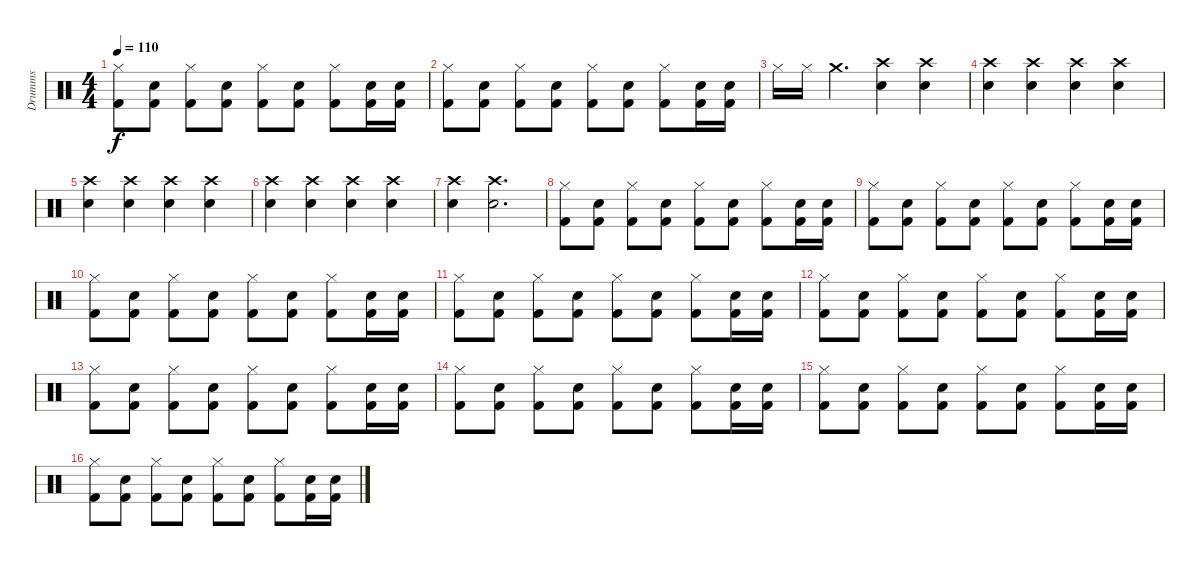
\track ("Drumms" "Drumms") {instrument percussion}
\staff {score}
\articulation defaults
\ts (4 4)
\tempo 110
\clef neutral
\ks c
("Kick (hit) 2" "Hi-Hat (closed)").8{dy f} ("Kick (hit) 2" "Snare (hit) 2").8 ("Kick (hit) 2" "Hi-Hat (closed)").8 ("Kick (hit) 2" "Snare (hit) 2").8 ("Kick (hit) 2" "Hi-Hat (closed)").8 ("Kick (hit) 2" "Snare (hit) 2").8 ("Kick (hit) 2" "Hi-Hat (closed)").8 ("Kick (hit) 2" "Snare (hit) 2").16 ("Kick (hit) 2" "Snare (hit) 2").16 |
("Kick (hit) 2" "Hi-Hat (closed)").8 ("Kick (hit) 2" "Snare (hit) 2").8 ("Kick (hit) 2" "Hi-Hat (closed)").8 ("Kick (hit) 2" "Snare (hit) 2").8 ("Kick (hit) 2" "Hi-Hat (closed)").8 ("Kick (hit) 2" "Snare (hit) 2").8 ("Kick (hit) 2" "Hi-Hat (closed)").8 ("Kick (hit) 2" "Snare (hit) 2").16 ("Kick (hit) 2" "Snare (hit) 2").16 |
"Hi-Hat (closed)".16 "Hi-Hat (closed)".16 "Crash medium (hit)".4{d} ("Snare (hit) 2" "Crash high (hit)").4 ("Snare (hit) 2" "Crash high (hit)").4 |
("Snare (hit) 2" "Crash high (hit)").4 ("Snare (hit) 2" "Crash high (hit)").4 ("Snare (hit) 2" "Crash high (hit)").4 ("Snare (hit) 2" "Crash high (hit)").4 |
("Snare (hit) 2" "Crash high (hit)").4 ("Snare (hit) 2" "Crash high (hit)").4 ("Snare (hit) 2" "Crash high (hit)").4 ("Snare (hit) 2" "Crash high (hit)").4 |
("Snare (hit) 2" "Crash high (hit)").4 ("Snare (hit) 2" "Crash high (hit)").4 ("Snare (hit) 2" "Crash high (hit)").4 ("Snare (hit) 2" "Crash high (hit)").4 |
("Snare (hit) 2" "Crash high (hit)").4 ("Snare (hit) 2" "Crash high (hit)").2{d} |
("Kick (hit) 2" "Hi-Hat (closed)").8 ("Kick (hit) 2" "Snare (hit) 2").8 ("Kick (hit) 2" "Hi-Hat (closed)").8 ("Kick (hit) 2" "Snare (hit) 2").8 ("Kick (hit) 2" "Hi-Hat (closed)").8 ("Kick (hit) 2" "Snare (hit) 2").8 ("Kick (hit) 2" "Hi-Hat (closed)").8 ("Kick (hit) 2" "Snare (hit) 2").16 ("Kick (hit) 2" "Snare (hit) 2").16 |
("Kick (hit) 2" "Hi-Hat (closed)").8 ("Kick (hit) 2" "Snare (hit) 2").8 ("Kick (hit) 2" "Hi-Hat (closed)").8 ("Kick (hit) 2" "Snare (hit) 2").8 ("Kick (hit) 2" "Hi-Hat (closed)").8 ("Kick (hit) 2" "Snare (hit) 2").8 ("Kick (hit) 2" "Hi-Hat (closed)").8 ("Kick (hit) 2" "Snare (hit) 2").16 ("Kick (hit) 2" "Snare (hit) 2").16 |
("Kick (hit) 2" "Hi-Hat (closed)").8 ("Kick (hit) 2" "Snare (hit) 2").8 ("Kick (hit) 2" "Hi-Hat (closed)").8 ("Kick (hit) 2" "Snare (hit) 2").8 ("Kick (hit) 2" "Hi-Hat (closed)").8 ("Kick (hit) 2" "Snare (hit) 2").8 ("Kick (hit) 2" "Hi-Hat (closed)").8 ("Kick (hit) 2" "Snare (hit) 2").16 ("Kick (hit) 2" "Snare (hit) 2").16 |
("Kick (hit) 2" "Hi-Hat (closed)").8 ("Kick (hit) 2" "Snare (hit) 2").8 ("Kick (hit) 2" "Hi-Hat (closed)").8 ("Kick (hit) 2" "Snare (hit) 2").8 ("Kick (hit) 2" "Hi-Hat (closed)").8 ("Kick (hit) 2" "Snare (hit) 2").8 ("Kick (hit) 2" "Hi-Hat (closed)").8 ("Kick (hit) 2" "Snare (hit) 2").16 ("Kick (hit) 2" "Snare (hit) 2").16 |
("Kick (hit) 2" "Hi-Hat (closed)").8 ("Kick (hit) 2" "Snare (hit) 2").8 ("Kick (hit) 2" "Hi-Hat (closed)").8 ("Kick (hit) 2" "Snare (hit) 2").8 ("Kick (hit) 2" "Hi-Hat (closed)").8 ("Kick (hit) 2" "Snare (hit) 2").8 ("Kick (hit) 2" "Hi-Hat (closed)").8 ("Kick (hit) 2" "Snare (hit) 2").16 ("Kick (hit) 2" "Snare (hit) 2").16 |
("Kick (hit) 2" "Hi-Hat (closed)").8 ("Kick (hit) 2" "Snare (hit) 2").8 ("Kick (hit) 2" "Hi-Hat (closed)").8 ("Kick (hit) 2" "Snare (hit) 2").8 ("Kick (hit) 2" "Hi-Hat (closed)").8 ("Kick (hit) 2" "Snare (hit) 2").8 ("Kick (hit) 2" "Hi-Hat (closed)").8 ("Kick (hit) 2" "Snare (hit) 2").16 ("Kick (hit) 2" "Snare (hit) 2").16 |
("Kick (hit) 2" "Hi-Hat (closed)").8 ("Kick (hit) 2" "Snare (hit) 2").8 ("Kick (hit) 2" "Hi-Hat (closed)").8 ("Kick (hit) 2" "Snare (hit) 2").8 ("Kick (hit) 2" "Hi-Hat (closed)").8 ("Kick (hit) 2" "Snare (hit) 2").8 ("Kick (hit) 2" "Hi-Hat (closed)").8 ("Kick (hit) 2" "Snare (hit) 2").16 ("Kick (hit) 2" "Snare (hit) 2").16 |
("Kick (hit) 2" "Hi-Hat (closed)").8 ("Kick (hit) 2" "Snare (hit) 2").8 ("Kick (hit) 2" "Hi-Hat (closed)").8 ("Kick (hit) 2" "Snare (hit) 2").8 ("Kick (hit) 2" "Hi-Hat (closed)").8 ("Kick (hit) 2" "Snare (hit) 2").8 ("Kick (hit) 2" "Hi-Hat (closed)").8 ("Kick (hit) 2" "Snare (hit) 2").16 ("Kick (hit) 2" "Snare (hit) 2").16 |
("Kick (hit) 2" "Hi-Hat (closed)").8 ("Kick (hit) 2" "Snare (hit) 2").8 ("Kick (hit) 2" "Hi-Hat (closed)").8 ("Kick (hit) 2" "Snare (hit) 2").8 ("Kick (hit) 2" "Hi-Hat (closed)").8 ("Kick (hit) 2" "Snare (hit) 2").8 ("Kick (hit) 2" "Hi-Hat (closed)").8 ("Kick (hit) 2" "Snare (hit) 2").16 ("Kick (hit) 2" "Snare (hit) 2").16
